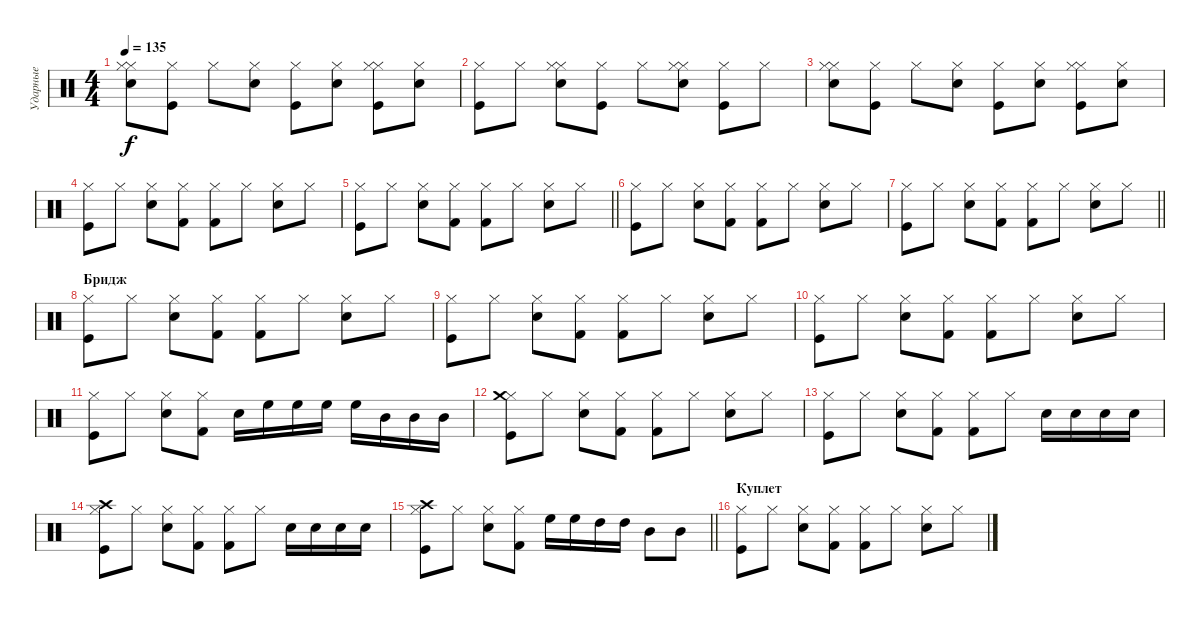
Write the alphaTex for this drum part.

\track ("Ударные" "Ударные") {instrument percussion}
\staff {score}
\articulation defaults
\ts (4 4)
\tempo 135
\clef neutral
\ks c
("Snare (hit) 2" "Hi-Hat (closed)" "Hi-Hat (closed)").8{dy f} ("Hi-Hat (closed)" "Kick (hit)").8 "Hi-Hat (closed)".8 ("Hi-Hat (closed)" "Snare (hit) 2").8 ("Hi-Hat (closed)" "Kick (hit)").8 ("Hi-Hat (closed)" "Snare (hit) 2").8 ("Kick (hit)" "Hi-Hat (closed)" "Hi-Hat (closed)").8 ("Snare (hit) 2" "Hi-Hat (closed)").8 |
("Hi-Hat (closed)" "Kick (hit)").8 "Hi-Hat (closed)".8 ("Snare (hit) 2" "Hi-Hat (closed)" "Hi-Hat (closed)").8 ("Hi-Hat (closed)" "Kick (hit)").8 "Hi-Hat (closed)".8 ("Snare (hit) 2" "Hi-Hat (closed)" "Hi-Hat (closed)").8 ("Hi-Hat (closed)" "Kick (hit)").8 "Hi-Hat (closed)".8 |
("Snare (hit) 2" "Hi-Hat (closed)" "Hi-Hat (closed)").8 ("Hi-Hat (closed)" "Kick (hit)").8 "Hi-Hat (closed)".8 ("Hi-Hat (closed)" "Snare (hit) 2").8 ("Hi-Hat (closed)" "Kick (hit)").8 ("Hi-Hat (closed)" "Snare (hit) 2").8 ("Kick (hit)" "Hi-Hat (closed)" "Hi-Hat (closed)").8 ("Snare (hit) 2" "Hi-Hat (closed)").8 |
("Kick (hit)" "Hi-Hat (closed)").8 "Hi-Hat (closed)".8 ("Snare (hit) 2" "Hi-Hat (closed)").8 ("Hi-Hat (closed)" "Kick (hit) 2").8 ("Hi-Hat (closed)" "Kick (hit) 2").8 "Hi-Hat (closed)".8 ("Hi-Hat (closed)" "Snare (hit) 2").8 "Hi-Hat (closed)".8 |
\barLineRight lightlight
("Kick (hit)" "Hi-Hat (closed)").8 "Hi-Hat (closed)".8 ("Snare (hit) 2" "Hi-Hat (closed)").8 ("Hi-Hat (closed)" "Kick (hit) 2").8 ("Hi-Hat (closed)" "Kick (hit) 2").8 "Hi-Hat (closed)".8 ("Hi-Hat (closed)" "Snare (hit) 2").8 "Hi-Hat (closed)".8 |
("Kick (hit)" "Hi-Hat (closed)").8 "Hi-Hat (closed)".8 ("Snare (hit) 2" "Hi-Hat (closed)").8 ("Hi-Hat (closed)" "Kick (hit) 2").8 ("Hi-Hat (closed)" "Kick (hit) 2").8 "Hi-Hat (closed)".8 ("Hi-Hat (closed)" "Snare (hit) 2").8 "Hi-Hat (closed)".8 |
\barLineRight lightlight
("Kick (hit)" "Hi-Hat (closed)").8 "Hi-Hat (closed)".8 ("Snare (hit) 2" "Hi-Hat (closed)").8 ("Hi-Hat (closed)" "Kick (hit) 2").8 ("Hi-Hat (closed)" "Kick (hit) 2").8 "Hi-Hat (closed)".8 ("Hi-Hat (closed)" "Snare (hit) 2").8 "Hi-Hat (closed)".8 |
\section ("" "Бридж")
("Kick (hit)" "Hi-Hat (closed)").8 "Hi-Hat (closed)".8 ("Snare (hit) 2" "Hi-Hat (closed)").8 ("Hi-Hat (closed)" "Kick (hit) 2").8 ("Hi-Hat (closed)" "Kick (hit) 2").8 "Hi-Hat (closed)".8 ("Hi-Hat (closed)" "Snare (hit) 2").8 "Hi-Hat (closed)".8 |
("Kick (hit)" "Hi-Hat (closed)").8 "Hi-Hat (closed)".8 ("Snare (hit) 2" "Hi-Hat (closed)").8 ("Hi-Hat (closed)" "Kick (hit) 2").8 ("Hi-Hat (closed)" "Kick (hit) 2").8 "Hi-Hat (closed)".8 ("Hi-Hat (closed)" "Snare (hit) 2").8 "Hi-Hat (closed)".8 |
("Kick (hit)" "Hi-Hat (closed)").8 "Hi-Hat (closed)".8 ("Snare (hit) 2" "Hi-Hat (closed)").8 ("Hi-Hat (closed)" "Kick (hit) 2").8 ("Hi-Hat (closed)" "Kick (hit) 2").8 "Hi-Hat (closed)".8 ("Hi-Hat (closed)" "Snare (hit) 2").8 "Hi-Hat (closed)".8 |
("Kick (hit)" "Hi-Hat (closed)").8 "Hi-Hat (closed)".8 ("Snare (hit) 2" "Hi-Hat (closed)").8 ("Hi-Hat (closed)" "Kick (hit) 2").8 "Snare (hit) 2".16 "High Floor Tom (hit)".16 "High Floor Tom (hit)".16 "High Floor Tom (hit)".16 "High Floor Tom (hit)".16 "Mid Tom (hit)".16 "Mid Tom (hit)".16 "Mid Tom (hit)".16 |
("Kick (hit)" "Hi-Hat (closed)" "Crash medium (hit)").8 "Hi-Hat (closed)".8 ("Snare (hit) 2" "Hi-Hat (closed)").8 ("Hi-Hat (closed)" "Kick (hit) 2").8 ("Hi-Hat (closed)" "Kick (hit) 2").8 "Hi-Hat (closed)".8 ("Hi-Hat (closed)" "Snare (hit) 2").8 "Hi-Hat (closed)".8 |
("Kick (hit)" "Hi-Hat (closed)").8 "Hi-Hat (closed)".8 ("Snare (hit) 2" "Hi-Hat (closed)").8 ("Hi-Hat (closed)" "Kick (hit) 2").8 ("Hi-Hat (closed)" "Kick (hit) 2").8 "Hi-Hat (closed)".8 "Snare (hit) 2".16 "Snare (hit) 2".16 "Snare (hit) 2".16 "Snare (hit) 2".16 |
("Kick (hit)" "Hi-Hat (closed)" "Crash high (hit)").8 "Hi-Hat (closed)".8 ("Snare (hit) 2" "Hi-Hat (closed)").8 ("Hi-Hat (closed)" "Kick (hit) 2").8 ("Hi-Hat (closed)" "Kick (hit) 2").8 "Hi-Hat (closed)".8 "Snare (hit) 2".16 "Snare (hit) 2".16 "Snare (hit) 2".16 "Snare (hit) 2".16 |
\barLineRight lightlight
("Kick (hit)" "Hi-Hat (closed)" "Crash high (hit)").8 "Hi-Hat (closed)".8 ("Snare (hit) 2" "Hi-Hat (closed)").8 ("Hi-Hat (closed)" "Kick (hit) 2").8 "High Floor Tom (hit)".16 "High Floor Tom (hit)".16 "High Tom (hit)".16 "High Tom (hit)".16 "Mid Tom (hit)".8 "Mid Tom (hit)".8 |
\section ("" "Куплет")
("Kick (hit)" "Hi-Hat (closed)").8 "Hi-Hat (closed)".8 ("Snare (hit) 2" "Hi-Hat (closed)").8 ("Hi-Hat (closed)" "Kick (hit) 2").8 ("Hi-Hat (closed)" "Kick (hit) 2").8 "Hi-Hat (closed)".8 ("Hi-Hat (closed)" "Snare (hit) 2").8 "Hi-Hat (closed)".8
